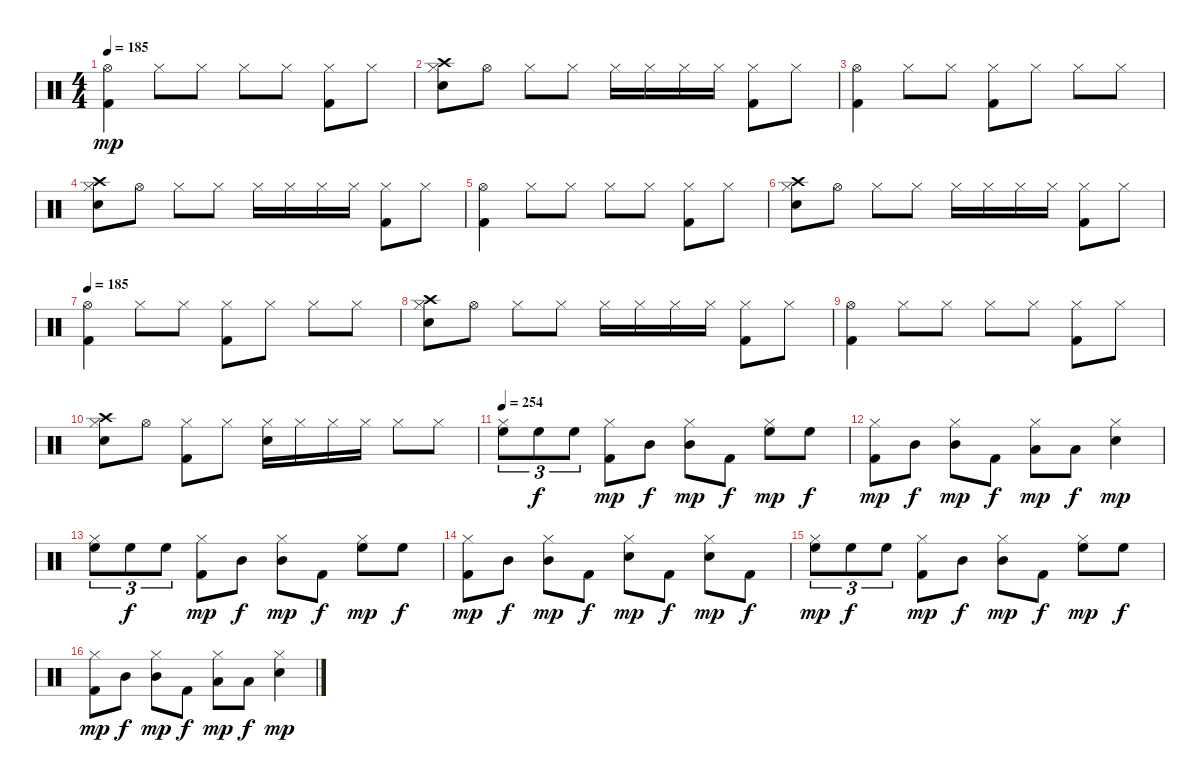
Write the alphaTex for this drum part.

\track "" {instrument percussion}
\staff {score}
\articulation defaults
\ts (4 4)
\tempo 185
\clef neutral
\ks c
("Hi-Hat (open)" "Kick (hit) 2").4{dy mp} "Hi-Hat (closed)".8 "Hi-Hat (closed)".8 "Hi-Hat (closed)".8 "Hi-Hat (closed)".8 ("Hi-Hat (closed)" "Kick (hit) 2").8 "Hi-Hat (closed)".8 |
("Hi-Hat (closed)" "Electric Snare (hit)" "Crash high (hit)").8 "Hi-Hat (open)".8 "Hi-Hat (closed)".8 "Hi-Hat (closed)".8 "Hi-Hat (closed)".16 "Hi-Hat (closed)".16 "Hi-Hat (closed)".16 "Hi-Hat (closed)".16 ("Hi-Hat (closed)" "Kick (hit) 2").8 "Hi-Hat (closed)".8 |
("Hi-Hat (open)" "Kick (hit) 2").4 "Hi-Hat (closed)".8 "Hi-Hat (closed)".8 ("Hi-Hat (closed)" "Kick (hit) 2").8 "Hi-Hat (closed)".8 "Hi-Hat (closed)".8 "Hi-Hat (closed)".8 |
("Hi-Hat (closed)" "Electric Snare (hit)" "Crash high (hit)").8 "Hi-Hat (open)".8 "Hi-Hat (closed)".8 "Hi-Hat (closed)".8 "Hi-Hat (closed)".16 "Hi-Hat (closed)".16 "Hi-Hat (closed)".16 "Hi-Hat (closed)".16 ("Hi-Hat (closed)" "Kick (hit) 2").8 "Hi-Hat (closed)".8 |
("Hi-Hat (open)" "Kick (hit) 2").4 "Hi-Hat (closed)".8 "Hi-Hat (closed)".8 "Hi-Hat (closed)".8 "Hi-Hat (closed)".8 ("Hi-Hat (closed)" "Kick (hit) 2").8 "Hi-Hat (closed)".8 |
("Hi-Hat (closed)" "Electric Snare (hit)" "Crash high (hit)").8 "Hi-Hat (open)".8 "Hi-Hat (closed)".8 "Hi-Hat (closed)".8 "Hi-Hat (closed)".16 "Hi-Hat (closed)".16 "Hi-Hat (closed)".16 "Hi-Hat (closed)".16 ("Hi-Hat (closed)" "Kick (hit) 2").8 "Hi-Hat (closed)".8 |
\tempo 185
("Hi-Hat (open)" "Kick (hit) 2").4 "Hi-Hat (closed)".8 "Hi-Hat (closed)".8 ("Hi-Hat (closed)" "Kick (hit) 2").8 "Hi-Hat (closed)".8 "Hi-Hat (closed)".8 "Hi-Hat (closed)".8 |
("Hi-Hat (closed)" "Electric Snare (hit)" "Crash high (hit)").8 "Hi-Hat (open)".8 "Hi-Hat (closed)".8 "Hi-Hat (closed)".8 "Hi-Hat (closed)".16 "Hi-Hat (closed)".16 "Hi-Hat (closed)".16 "Hi-Hat (closed)".16 ("Hi-Hat (closed)" "Kick (hit) 2").8 "Hi-Hat (closed)".8 |
("Hi-Hat (open)" "Kick (hit) 2").4 "Hi-Hat (closed)".8 "Hi-Hat (closed)".8 "Hi-Hat (closed)".8 "Hi-Hat (closed)".8 ("Hi-Hat (closed)" "Kick (hit) 2").8 "Hi-Hat (closed)".8 |
("Hi-Hat (closed)" "Electric Snare (hit)" "Crash high (hit)").8 "Hi-Hat (open)".8 ("Hi-Hat (closed)" "Kick (hit) 2").8 "Hi-Hat (closed)".8 ("Hi-Hat (closed)" "Electric Snare (hit)").16 "Hi-Hat (closed)".16 "Hi-Hat (closed)".16 "Hi-Hat (closed)".16 "Hi-Hat (closed)".8 "Hi-Hat (closed)".8 |
\tempo 254
("Hi-Hat (closed)" "High Floor Tom (hit)").8{tu (3 2) balance 14} "High Floor Tom (hit)".8{tu (3 2) dy f} "High Floor Tom (hit)".8{tu (3 2)} ("Hi-Hat (closed)" "Kick (hit) 2").8{dy mp} "Mid Tom (hit)".8{dy f balance 8} ("Hi-Hat (closed)" "Mid Tom (hit)").8{dy mp} "Kick (hit) 2".8{dy f} ("Hi-Hat (closed)" "High Floor Tom (hit)").8{dy mp balance 14} "High Floor Tom (hit)".8{dy f} |
("Hi-Hat (closed)" "Kick (hit) 2").8{dy mp balance 8} "Mid Tom (hit)".8{dy f} ("Hi-Hat (closed)" "Mid Tom (hit)").8{dy mp} "Kick (hit) 2".8{dy f} ("Hi-Hat (closed)" "Low Tom (hit)").8{dy mp balance 2} "Low Tom (hit)".8{dy f} ("Hi-Hat (closed)" "Electric Snare (hit)").4{dy mp balance 8} |
("Hi-Hat (closed)" "High Floor Tom (hit)").8{tu (3 2) balance 14} "High Floor Tom (hit)".8{tu (3 2) dy f} "High Floor Tom (hit)".8{tu (3 2)} ("Hi-Hat (closed)" "Kick (hit) 2").8{dy mp balance 8} "Mid Tom (hit)".8{dy f} ("Hi-Hat (closed)" "Mid Tom (hit)").8{dy mp} "Kick (hit) 2".8{dy f} ("Hi-Hat (closed)" "High Floor Tom (hit)").8{dy mp balance 14} "High Floor Tom (hit)".8{dy f} |
("Hi-Hat (closed)" "Kick (hit) 2").8{dy mp balance 8} "Mid Tom (hit)".8{dy f} ("Hi-Hat (closed)" "Mid Tom (hit)").8{dy mp} "Kick (hit) 2".8{dy f} ("Hi-Hat (closed)" "Electric Snare (hit)").8{dy mp} "Kick (hit) 2".8{dy f} ("Hi-Hat (closed)" "Electric Snare (hit)").8{dy mp} "Kick (hit) 2".8{dy f} |
("Hi-Hat (closed)" "High Floor Tom (hit)").8{tu (3 2) dy mp balance 14} "High Floor Tom (hit)".8{tu (3 2) dy f} "High Floor Tom (hit)".8{tu (3 2)} ("Hi-Hat (closed)" "Kick (hit) 2").8{dy mp} "Mid Tom (hit)".8{dy f balance 8} ("Hi-Hat (closed)" "Mid Tom (hit)").8{dy mp} "Kick (hit) 2".8{dy f} ("Hi-Hat (closed)" "High Floor Tom (hit)").8{dy mp balance 14} "High Floor Tom (hit)".8{dy f} |
("Hi-Hat (closed)" "Kick (hit) 2").8{dy mp balance 8} "Mid Tom (hit)".8{dy f} ("Hi-Hat (closed)" "Mid Tom (hit)").8{dy mp} "Kick (hit) 2".8{dy f} ("Hi-Hat (closed)" "Low Tom (hit)").8{dy mp balance 2} "Low Tom (hit)".8{dy f} ("Hi-Hat (closed)" "Electric Snare (hit)").4{dy mp balance 8}
